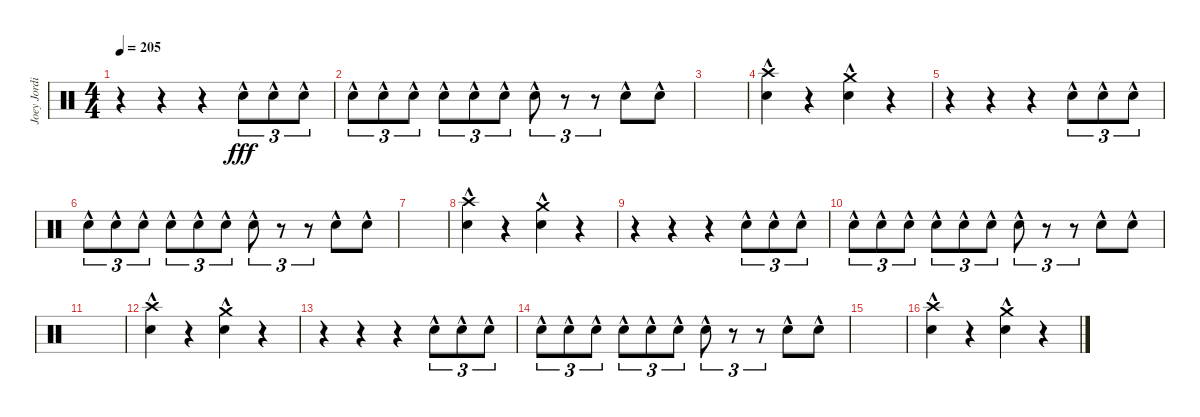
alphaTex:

\track ("Joey Jordison" "Joey Jordi") {instrument percussion}
\staff {score}
\articulation defaults
\ts (4 4)
\tempo 205
\clef neutral
\ks c
r.4{dy fff} r.4 r.4 "Electric Snare (hit)"{hac}.8{tu (3 2)} "Electric Snare (hit)"{hac}.8{tu (3 2)} "Electric Snare (hit)"{hac}.8{tu (3 2)} |
"Electric Snare (hit)"{hac}.8{tu (3 2)} "Electric Snare (hit)"{hac}.8{tu (3 2)} "Electric Snare (hit)"{hac}.8{tu (3 2)} "Electric Snare (hit)"{hac}.8{tu (3 2)} "Electric Snare (hit)"{hac}.8{tu (3 2)} "Electric Snare (hit)"{hac}.8{tu (3 2)} "Electric Snare (hit)"{hac}.8{tu (3 2)} r.8{tu (3 2)} r.8{tu (3 2)} "Electric Snare (hit)"{hac}.8 "Electric Snare (hit)"{hac}.8 |
|
("Crash high (hit)"{hac} "Snare (hit) 2"{hac}).4 r.4 ("Crash medium (hit)"{hac} "Snare (hit) 2"{hac}).4 r.4 |
r.4 r.4 r.4 "Electric Snare (hit)"{hac}.8{tu (3 2)} "Electric Snare (hit)"{hac}.8{tu (3 2)} "Electric Snare (hit)"{hac}.8{tu (3 2)} |
"Electric Snare (hit)"{hac}.8{tu (3 2)} "Electric Snare (hit)"{hac}.8{tu (3 2)} "Electric Snare (hit)"{hac}.8{tu (3 2)} "Electric Snare (hit)"{hac}.8{tu (3 2)} "Electric Snare (hit)"{hac}.8{tu (3 2)} "Electric Snare (hit)"{hac}.8{tu (3 2)} "Electric Snare (hit)"{hac}.8{tu (3 2)} r.8{tu (3 2)} r.8{tu (3 2)} "Electric Snare (hit)"{hac}.8 "Electric Snare (hit)"{hac}.8 |
|
("Crash high (hit)"{hac} "Electric Snare (hit)"{hac}).4 r.4 ("Crash medium (hit)"{hac} "Electric Snare (hit)"{hac}).4 r.4 |
r.4 r.4 r.4 "Electric Snare (hit)"{hac}.8{tu (3 2)} "Electric Snare (hit)"{hac}.8{tu (3 2)} "Electric Snare (hit)"{hac}.8{tu (3 2)} |
"Electric Snare (hit)"{hac}.8{tu (3 2)} "Electric Snare (hit)"{hac}.8{tu (3 2)} "Electric Snare (hit)"{hac}.8{tu (3 2)} "Electric Snare (hit)"{hac}.8{tu (3 2)} "Electric Snare (hit)"{hac}.8{tu (3 2)} "Electric Snare (hit)"{hac}.8{tu (3 2)} "Electric Snare (hit)"{hac}.8{tu (3 2)} r.8{tu (3 2)} r.8{tu (3 2)} "Electric Snare (hit)"{hac}.8 "Electric Snare (hit)"{hac}.8 |
|
("Crash high (hit)"{hac} "Electric Snare (hit)"{hac}).4 r.4 ("Crash medium (hit)"{hac} "Electric Snare (hit)"{hac}).4 r.4 |
r.4 r.4 r.4 "Electric Snare (hit)"{hac}.8{tu (3 2)} "Electric Snare (hit)"{hac}.8{tu (3 2)} "Electric Snare (hit)"{hac}.8{tu (3 2)} |
"Electric Snare (hit)"{hac}.8{tu (3 2)} "Electric Snare (hit)"{hac}.8{tu (3 2)} "Electric Snare (hit)"{hac}.8{tu (3 2)} "Electric Snare (hit)"{hac}.8{tu (3 2)} "Electric Snare (hit)"{hac}.8{tu (3 2)} "Electric Snare (hit)"{hac}.8{tu (3 2)} "Electric Snare (hit)"{hac}.8{tu (3 2)} r.8{tu (3 2)} r.8{tu (3 2)} "Electric Snare (hit)"{hac}.8 "Electric Snare (hit)"{hac}.8 |
|
("Crash high (hit)"{hac} "Electric Snare (hit)"{hac}).4 r.4 ("Crash medium (hit)"{hac} "Electric Snare (hit)"{hac}).4 r.4
